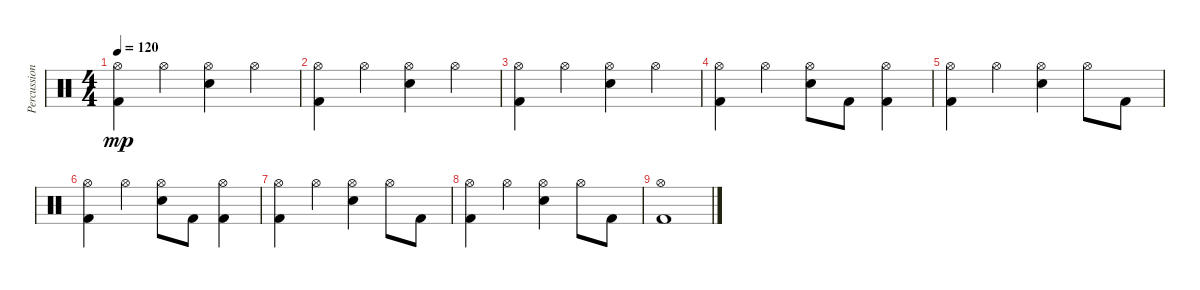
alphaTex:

\track ("Percussion" "Percussion") {instrument percussion}
\staff {score}
\articulation defaults
\ts (4 4)
\tempo 120
\clef neutral
\ks c
("Kick (hit) 2" "Hi-Hat (open)").4{dy mp} "Hi-Hat (open)".4 ("Snare (hit) 2" "Hi-Hat (open)").4 "Hi-Hat (open)".4 |
("Kick (hit) 2" "Hi-Hat (open)").4 "Hi-Hat (open)".4 ("Snare (hit) 2" "Hi-Hat (open)").4 "Hi-Hat (open)".4 |
("Kick (hit) 2" "Hi-Hat (open)").4 "Hi-Hat (open)".4 ("Snare (hit) 2" "Hi-Hat (open)").4 "Hi-Hat (open)".4 |
("Kick (hit) 2" "Hi-Hat (open)").4 "Hi-Hat (open)".4 ("Snare (hit) 2" "Hi-Hat (open)").8 "Kick (hit) 2".8 ("Kick (hit) 2" "Hi-Hat (open)").4 |
("Kick (hit) 2" "Hi-Hat (open)").4 "Hi-Hat (open)".4 ("Snare (hit) 2" "Hi-Hat (open)").4 "Hi-Hat (open)".8 "Kick (hit) 2".8 |
("Kick (hit) 2" "Hi-Hat (open)").4 "Hi-Hat (open)".4 ("Snare (hit) 2" "Hi-Hat (open)").8 "Kick (hit) 2".8 ("Kick (hit) 2" "Hi-Hat (open)").4 |
("Kick (hit) 2" "Hi-Hat (open)").4 "Hi-Hat (open)".4 ("Snare (hit) 2" "Hi-Hat (open)").4 "Hi-Hat (open)".8 "Kick (hit) 2".8 |
("Kick (hit) 2" "Hi-Hat (open)").4 "Hi-Hat (open)".4 ("Snare (hit) 2" "Hi-Hat (open)").4 "Hi-Hat (open)".8 "Kick (hit) 2".8 |
("Kick (hit) 2" "Hi-Hat (open)").1
